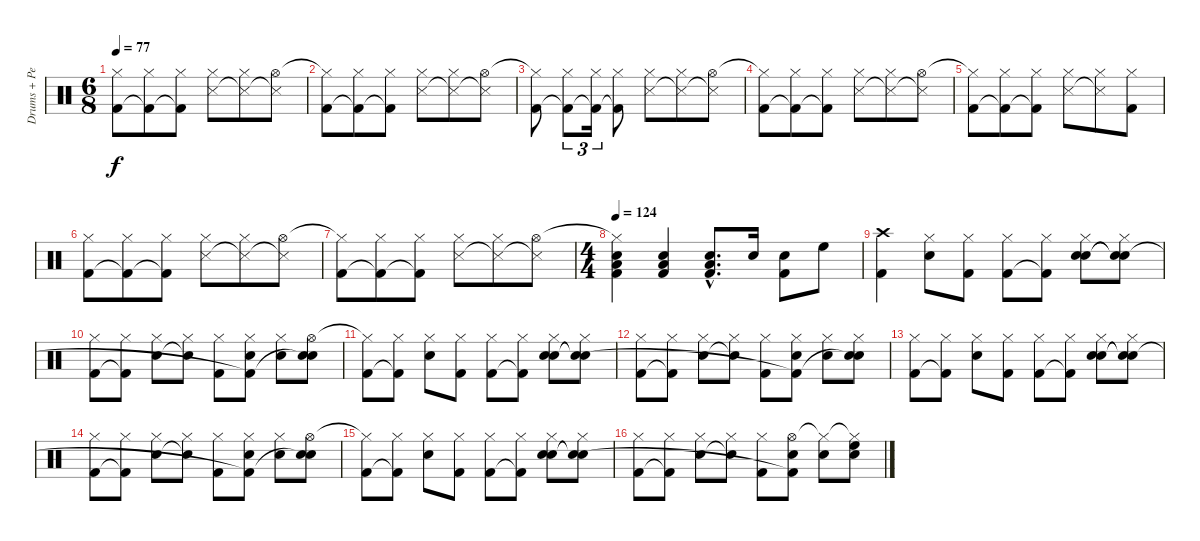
\track ("Drums + Percussions (Bill Berry)" "Drums + Pe") {instrument percussion}
\staff {score}
\articulation defaults
\ts (6 8)
\tempo 77
\clef neutral
\ks c
("Hi-Hat (closed)" "Kick (hit) 2").8{dy f} ("Hi-Hat (closed)" "Kick (hit) 2"{t}).8 ("Hi-Hat (closed)" "Kick (hit) 2"{t}).8 ("Hi-Hat (closed)" "Snare (side stick) 3").8 ("Hi-Hat (closed)" "Snare (side stick) 3"{t}).8 ("Hi-Hat (open)" "Snare (side stick) 3"{t}).8 |
("Hi-Hat (closed)"{t} "Kick (hit) 2").8 ("Hi-Hat (closed)" "Kick (hit) 2"{t}).8 ("Hi-Hat (closed)" "Kick (hit) 2"{t}).8 ("Hi-Hat (closed)" "Snare (side stick) 3").8 ("Hi-Hat (closed)" "Snare (side stick) 3"{t}).8 ("Hi-Hat (open)" "Snare (side stick) 3"{t}).8 |
("Hi-Hat (closed)"{t} "Kick (hit) 2").8 ("Hi-Hat (closed)" "Kick (hit) 2"{t}).8{tu (3 2)} ("Hi-Hat (closed)" "Kick (hit) 2"{t}).16{tu (3 2)} ("Hi-Hat (closed)" "Kick (hit) 2"{t}).8 ("Hi-Hat (closed)" "Snare (side stick) 3").8 ("Hi-Hat (closed)" "Snare (side stick) 3"{t}).8 ("Hi-Hat (open)" "Snare (side stick) 3"{t}).8 |
("Hi-Hat (closed)"{t} "Kick (hit) 2").8 ("Hi-Hat (closed)" "Kick (hit) 2"{t}).8 ("Hi-Hat (closed)" "Kick (hit) 2"{t}).8 ("Hi-Hat (closed)" "Snare (side stick) 3").8 ("Hi-Hat (closed)" "Snare (side stick) 3"{t}).8 ("Hi-Hat (open)" "Snare (side stick) 3"{t}).8 |
("Hi-Hat (closed)"{t} "Kick (hit) 2").8 ("Hi-Hat (closed)" "Kick (hit) 2"{t}).8 ("Hi-Hat (closed)" "Kick (hit) 2"{t}).8 ("Hi-Hat (closed)" "Snare (side stick) 3").8 ("Hi-Hat (closed)" "Snare (side stick) 3"{t}).8 ("Hi-Hat (closed)" "Kick (hit) 2").8 |
("Hi-Hat (closed)" "Kick (hit) 2").8 ("Hi-Hat (closed)" "Kick (hit) 2"{t}).8 ("Hi-Hat (closed)" "Kick (hit) 2"{t}).8 ("Hi-Hat (closed)" "Snare (side stick) 3").8 ("Hi-Hat (closed)" "Snare (side stick) 3"{t}).8 ("Hi-Hat (open)" "Snare (side stick) 3"{t}).8 |
("Hi-Hat (closed)"{t} "Kick (hit) 2").8 ("Hi-Hat (closed)" "Kick (hit) 2"{t}).8 ("Hi-Hat (closed)" "Kick (hit) 2"{t}).8 ("Hi-Hat (closed)" "Snare (side stick) 3").8 ("Hi-Hat (closed)" "Snare (side stick) 3"{t}).8 ("Hi-Hat (open)" "Snare (side stick) 3"{t}).8 |
\ts (4 4)
\tempo 124
("Hi-Hat (closed)"{t} "Snare (hit) 2" "Low Tom (hit)" "Kick (hit) 2").4 ("Snare (hit) 2" "Low Tom (hit)" "Kick (hit) 2").4 ("Snare (hit) 2"{hac} "Low Tom (hit)"{hac} "Kick (hit) 2"{hac}).8{d} "Snare (hit) 2".16 ("Snare (hit) 2" "Kick (hit) 2").8 "High Floor Tom (hit)".8 |
("Crash high (hit)" "Kick (hit) 2").4 ("Hi-Hat (closed)" "Snare (hit) 2").8 ("Hi-Hat (closed)" "Kick (hit) 2").8 ("Hi-Hat (closed)" "Kick (hit) 2").8 ("Hi-Hat (closed)" "Kick (hit) 2"{t}).8 ("Hi-Hat (closed)" "Hand Clap (hit)" "Snare (hit) 2").8 ("Hi-Hat (closed)" "Hand Clap (hit)"{t} "Snare (hit) 2"{t}).8 |
("Hi-Hat (closed)" "Kick (hit) 2").8 ("Hi-Hat (closed)" "Kick (hit) 2"{t}).8 ("Hi-Hat (closed)" "Snare (hit) 2").8 ("Hi-Hat (closed)" "Snare (hit) 2"{t}).8 ("Hi-Hat (closed)" "Kick (hit) 2").8 ("Hi-Hat (closed)" "Hand Clap (hit)" "Kick (hit) 2"{t}).8 ("Hi-Hat (closed)" "Snare (hit) 2").8 ("Hi-Hat (open)" "Hand Clap (hit)" "Snare (hit) 2"{t}).8 |
("Hi-Hat (closed)"{t} "Kick (hit) 2").8 ("Hi-Hat (closed)" "Kick (hit) 2"{t}).8 ("Hi-Hat (closed)" "Snare (hit) 2").8 ("Hi-Hat (closed)" "Kick (hit) 2").8 ("Hi-Hat (closed)" "Kick (hit) 2").8 ("Hi-Hat (closed)" "Kick (hit) 2"{t}).8 ("Hi-Hat (closed)" "Hand Clap (hit)" "Snare (hit) 2").8 ("Hi-Hat (closed)" "Hand Clap (hit)"{t} "Snare (hit) 2"{t}).8 |
("Hi-Hat (closed)" "Kick (hit) 2").8 ("Hi-Hat (closed)" "Kick (hit) 2"{t}).8 ("Hi-Hat (closed)" "Snare (hit) 2").8 ("Hi-Hat (closed)" "Snare (hit) 2"{t}).8 ("Hi-Hat (closed)" "Kick (hit) 2").8 ("Hi-Hat (closed)" "Hand Clap (hit)" "Kick (hit) 2"{t}).8 ("Hi-Hat (closed)" "Snare (hit) 2").8 ("Hi-Hat (closed)" "Hand Clap (hit)" "Snare (hit) 2"{t}).8 |
("Hi-Hat (closed)" "Kick (hit) 2").8 ("Hi-Hat (closed)" "Kick (hit) 2"{t}).8 ("Hi-Hat (closed)" "Snare (hit) 2").8 ("Hi-Hat (closed)" "Kick (hit) 2").8 ("Hi-Hat (closed)" "Kick (hit) 2").8 ("Hi-Hat (closed)" "Kick (hit) 2"{t}).8 ("Hi-Hat (closed)" "Hand Clap (hit)" "Snare (hit) 2").8 ("Hi-Hat (closed)" "Hand Clap (hit)"{t} "Snare (hit) 2"{t}).8 |
("Hi-Hat (closed)" "Kick (hit) 2").8 ("Hi-Hat (closed)" "Kick (hit) 2"{t}).8 ("Hi-Hat (closed)" "Snare (hit) 2").8 ("Hi-Hat (closed)" "Snare (hit) 2"{t}).8 ("Hi-Hat (closed)" "Kick (hit) 2").8 ("Hi-Hat (closed)" "Hand Clap (hit)" "Kick (hit) 2"{t}).8 ("Hi-Hat (closed)" "Snare (hit) 2").8 ("Hi-Hat (open)" "Hand Clap (hit)" "Snare (hit) 2"{t}).8 |
("Hi-Hat (closed)"{t} "Kick (hit) 2").8 ("Hi-Hat (closed)" "Kick (hit) 2"{t}).8 ("Hi-Hat (closed)" "Snare (hit) 2").8 ("Hi-Hat (closed)" "Kick (hit) 2").8 ("Hi-Hat (closed)" "Kick (hit) 2").8 ("Hi-Hat (closed)" "Kick (hit) 2"{t}).8 ("Hi-Hat (closed)" "Hand Clap (hit)" "Snare (hit) 2").8 ("Hi-Hat (closed)" "Hand Clap (hit)"{t} "Snare (hit) 2"{t}).8 |
("Hi-Hat (closed)" "Kick (hit) 2").8 ("Hi-Hat (closed)" "Kick (hit) 2"{t}).8 ("Hi-Hat (closed)" "Snare (hit) 2").8 ("Hi-Hat (closed)" "Snare (hit) 2"{t}).8 ("Hi-Hat (closed)" "Kick (hit) 2").8 ("Hi-Hat (open)" "Hand Clap (hit)" "Kick (hit) 2"{t}).8 ("Hi-Hat (closed)"{t} "Snare (hit) 2").8 ("Hi-Hat (closed)"{t} "Hand Clap (hit)" "High Floor Tom (hit)").8
